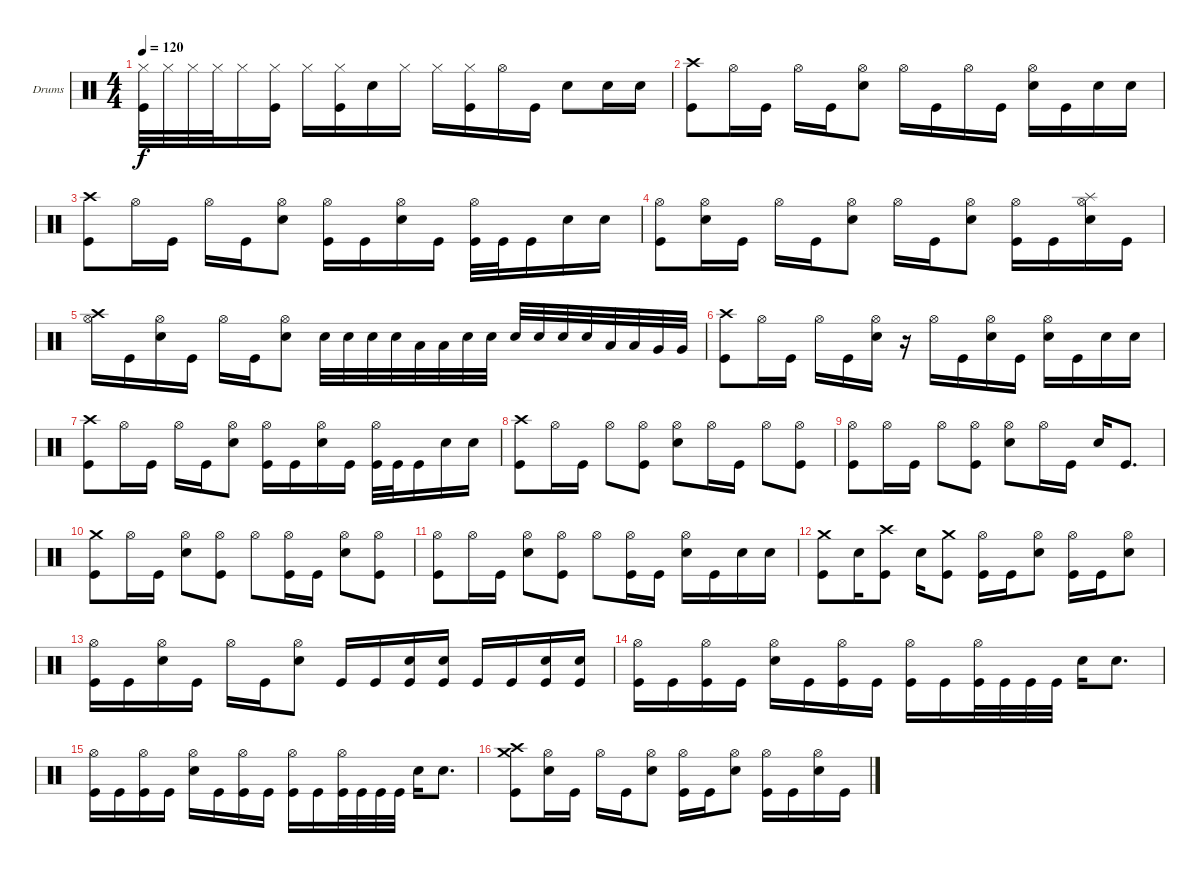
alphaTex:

\bracketExtendMode groupsimilarinstruments
\firstSystemTrackNameOrientation horizontal
\otherSystemsTrackNameOrientation horizontal
\track ("Drumkit" "Drums") {instrument percussion}
\staff {score}
\articulation defaults
\ts (4 4)
\tempo 120
\clef neutral
\scale
0.333333
\ks c
("Hi-Hat (closed)" "Kick (hit)").32{dy f} "Hi-Hat (closed)".32 "Hi-Hat (closed)".32 "Hi-Hat (closed)".32 "Hi-Hat (closed)".16 ("Hi-Hat (closed)" "Kick (hit)").16 "Hi-Hat (closed)".16 ("Hi-Hat (closed)" "Kick (hit)").16 "Snare (hit) 2".16 "Hi-Hat (closed)".16 "Hi-Hat (closed)".16 ("Hi-Hat (closed)" "Kick (hit)").16 "Hi-Hat (open)".16 "Kick (hit)".16 "Snare (hit) 2".8 "Snare (hit) 2".16 "Snare (hit) 2".16 |
\scale
0.333333 ("Crash high (hit)" "Kick (hit)").8 "Hi-Hat (open)".16 "Kick (hit)".16 "Hi-Hat (open)".16 "Kick (hit)".16 ("Hi-Hat (open)" "Snare (hit) 2").8 "Hi-Hat (open)".16 "Kick (hit)".16 "Hi-Hat (open)".16 "Kick (hit)".16 ("Hi-Hat (open)" "Snare (hit) 2").16 "Kick (hit)".16 "Snare (hit) 2".16 "Snare (hit) 2".16 |
\scale
0.333333 ("Crash high (hit)" "Kick (hit)").8 "Hi-Hat (open)".16 "Kick (hit)".16 "Hi-Hat (open)".16 "Kick (hit)".16 ("Hi-Hat (open)" "Snare (hit) 2").8 ("Hi-Hat (open)" "Kick (hit)").16 "Kick (hit)".16 ("Hi-Hat (open)" "Snare (hit) 2").16 "Kick (hit)".16 ("Hi-Hat (open)" "Kick (hit)").32 "Kick (hit)".32 "Kick (hit)".16 "Snare (hit) 2".16 "Snare (hit) 2".16 |
\scale
0.333333 ("Hi-Hat (open)" "Kick (hit)").8 ("Hi-Hat (open)" "Snare (hit) 2").16 "Kick (hit)".16 "Hi-Hat (open)".16 "Kick (hit)".16 ("Hi-Hat (open)" "Snare (hit) 2").8 "Hi-Hat (open)".16 "Kick (hit)".16 ("Hi-Hat (open)" "Snare (hit) 2").8 ("Hi-Hat (open)" "Kick (hit)").16 "Kick (hit)".16 ("Splash (hit)" "Hi-Hat (open)" "Snare (hit) 2").16 "Kick (hit)".16 |
\scale
0.333333 ("Crash high (hit)" "Hi-Hat (open)").16 "Kick (hit)".16 ("Hi-Hat (open)" "Snare (hit) 2").16 "Kick (hit)".16 "Hi-Hat (open)".16 "Kick (hit)".16 ("Hi-Hat (open)" "Snare (hit) 2").8 "Snare (hit) 2".32 "Snare (hit) 2".32 "Snare (hit) 2".32 "Snare (hit) 2".32 "Low Tom (hit)".32 "Low Tom (hit)".32 "Snare (hit) 2".32 "Snare (hit) 2".32 "Snare (hit) 2".32 "Snare (hit) 2".32 "Snare (hit) 2".32 "Snare (hit) 2".32 "Low Tom (hit)".32 "Low Tom (hit)".32 "Very Low Tom (hit)".32 "Very Low Tom (hit)".32 |
\scale
0.333333 ("Crash high (hit)" "Kick (hit)").8 "Hi-Hat (open)".16 "Kick (hit)".16 "Hi-Hat (open)".16 "Kick (hit)".16 ("Hi-Hat (open)" "Snare (hit) 2").16 r.16 "Hi-Hat (open)".16 "Kick (hit)".16 ("Hi-Hat (open)" "Snare (hit) 2").16 "Kick (hit)".16 ("Hi-Hat (open)" "Snare (hit) 2").16 "Kick (hit)".16 "Snare (hit) 2".16 "Snare (hit) 2".16 |
\scale
0.333333 ("Crash high (hit)" "Kick (hit)").8 "Hi-Hat (open)".16 "Kick (hit)".16 "Hi-Hat (open)".16 "Kick (hit)".16 ("Hi-Hat (open)" "Snare (hit) 2").8 ("Hi-Hat (open)" "Kick (hit)").16 "Kick (hit)".16 ("Hi-Hat (open)" "Snare (hit) 2").16 "Kick (hit)".16 ("Hi-Hat (open)" "Kick (hit)").32 "Kick (hit)".32 "Kick (hit)".16 "Snare (hit) 2".16 "Snare (hit) 2".16 |
\scale
0.333333 ("Crash high (hit)" "Kick (hit)").8 "Hi-Hat (open)".16 "Kick (hit)".16 "Hi-Hat (open)".8 ("Hi-Hat (open)" "Kick (hit)").8 ("Hi-Hat (open)" "Snare (hit) 2").8 "Hi-Hat (open)".16 "Kick (hit)".16 "Hi-Hat (open)".8 ("Hi-Hat (open)" "Kick (hit)").8 |
\scale
0.333333 ("Hi-Hat (open)" "Kick (hit)").8 "Hi-Hat (open)".16 "Kick (hit)".16 "Hi-Hat (open)".8 ("Hi-Hat (open)" "Kick (hit)").8 ("Hi-Hat (open)" "Snare (hit) 2").8 "Hi-Hat (open)".16 "Kick (hit)".16 "Snare (hit) 2".16 "Kick (hit)".8{d} |
\scale
0.333333 ("Crash medium (hit)" "Kick (hit)").8 "Hi-Hat (open)".16 "Kick (hit)".16 ("Hi-Hat (open)" "Snare (hit) 2").8 ("Hi-Hat (open)" "Kick (hit)").8 "Hi-Hat (open)".8 ("Hi-Hat (open)" "Kick (hit)").16 "Kick (hit)".16 ("Hi-Hat (open)" "Snare (hit) 2").8 ("Hi-Hat (open)" "Kick (hit)").8 |
\scale
0.333333 ("Hi-Hat (open)" "Kick (hit)").8 "Hi-Hat (open)".16 "Kick (hit)".16 ("Hi-Hat (open)" "Snare (hit) 2").8 ("Hi-Hat (open)" "Kick (hit)").8 "Hi-Hat (open)".8 ("Hi-Hat (open)" "Kick (hit)").16 "Kick (hit)".16 ("Hi-Hat (open)" "Snare (hit) 2").16 "Kick (hit)".16 "Snare (hit) 2".16 "Snare (hit) 2".16 |
\scale
0.333333 ("Crash medium (hit)" "Kick (hit)").8 "Snare (hit) 2".16 ("Crash high (hit)" "Kick (hit)").8 "Snare (hit) 2".16 ("Crash medium (hit)" "Kick (hit)").8 ("Hi-Hat (open)" "Kick (hit)").16 "Kick (hit)".16 ("Hi-Hat (open)" "Snare (hit) 2").8 ("Hi-Hat (open)" "Kick (hit)").16 "Kick (hit)".16 ("Hi-Hat (open)" "Snare (hit) 2").8 |
\scale
0.333333 ("Hi-Hat (open)" "Kick (hit)").16 "Kick (hit)".16 ("Hi-Hat (open)" "Snare (hit) 2").16 "Kick (hit)".16 "Hi-Hat (open)".16 "Kick (hit)".16 ("Hi-Hat (open)" "Snare (hit) 2").8 "Kick (hit)".16 "Kick (hit)".16 ("Snare (hit) 2" "Kick (hit)").16 ("Snare (hit) 2" "Kick (hit)").16 "Kick (hit)".16 "Kick (hit)".16 ("Snare (hit) 2" "Kick (hit)").16 ("Snare (hit) 2" "Kick (hit)").16 |
\scale
0.333333 ("Hi-Hat (open)" "Kick (hit)").16 "Kick (hit)".16 ("Hi-Hat (open)" "Kick (hit)").16 "Kick (hit)".16 ("Hi-Hat (open)" "Snare (hit) 2").16 "Kick (hit)".16 ("Hi-Hat (open)" "Kick (hit)").16 "Kick (hit)".16 ("Hi-Hat (open)" "Kick (hit)").16 "Kick (hit)".16 ("Hi-Hat (open)" "Kick (hit)").32 "Kick (hit)".32 "Kick (hit)".32 "Kick (hit)".32 "Snare (hit) 2".16 "Snare (hit) 2".8{d} |
\scale
0.333333 ("Hi-Hat (open)" "Kick (hit)").16 "Kick (hit)".16 ("Hi-Hat (open)" "Kick (hit)").16 "Kick (hit)".16 ("Hi-Hat (open)" "Snare (hit) 2").16 "Kick (hit)".16 ("Hi-Hat (open)" "Kick (hit)").16 "Kick (hit)".16 ("Hi-Hat (open)" "Kick (hit)").16 "Kick (hit)".16 ("Hi-Hat (open)" "Kick (hit)").32 "Kick (hit)".32 "Kick (hit)".32 "Kick (hit)".32 "Snare (hit) 2".16 "Snare (hit) 2".8{d} |
\scale
0.333333 ("Crash medium (hit)" "Crash high (hit)" "Kick (hit)").8 ("Hi-Hat (open)" "Snare (hit) 2").16 "Kick (hit)".16 "Hi-Hat (open)".16 "Kick (hit)".16 ("Hi-Hat (open)" "Snare (hit) 2").8 ("Hi-Hat (open)" "Kick (hit)").16 "Kick (hit)".16 ("Hi-Hat (open)" "Snare (hit) 2").8 ("Hi-Hat (open)" "Kick (hit)").16 "Kick (hit)".16 ("Hi-Hat (open)" "Snare (hit) 2").16 "Kick (hit)".16
